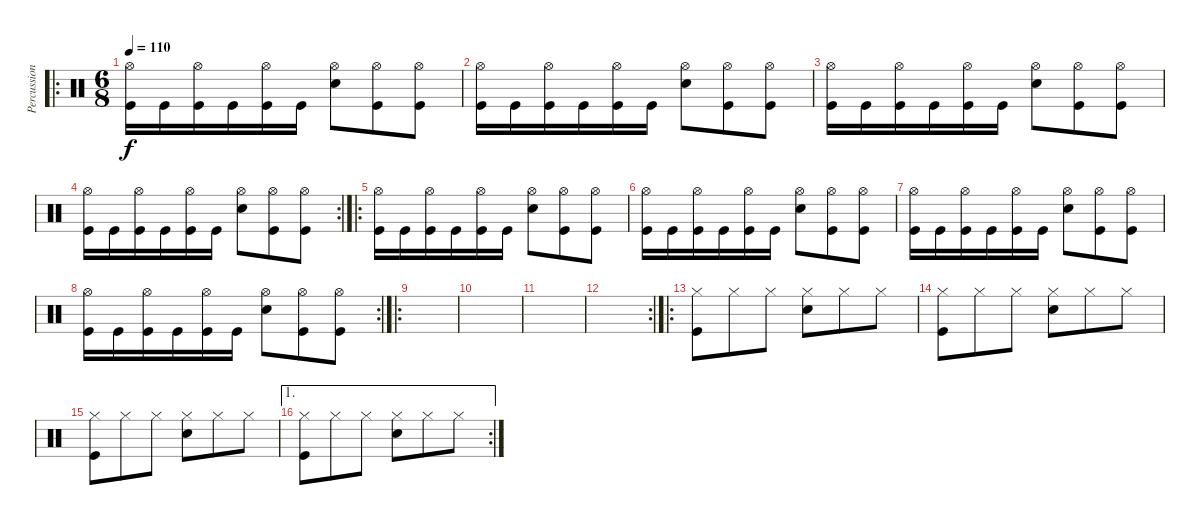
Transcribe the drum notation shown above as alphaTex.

\track ("Percussion" "Percussion") {instrument percussion}
\staff {score}
\articulation defaults
\ro
\ts (6 8)
\tempo 110
\clef neutral
\ks c
("Hi-Hat (open)" "Kick (hit)").16{dy f} "Kick (hit)".16 ("Hi-Hat (open)" "Kick (hit)").16 "Kick (hit)".16 ("Hi-Hat (open)" "Kick (hit)").16 "Kick (hit)".16 ("Hi-Hat (open)" "Snare (hit) 2").8 ("Hi-Hat (open)" "Kick (hit)").8 ("Hi-Hat (open)" "Kick (hit)").8 |
("Hi-Hat (open)" "Kick (hit)").16 "Kick (hit)".16 ("Hi-Hat (open)" "Kick (hit)").16 "Kick (hit)".16 ("Hi-Hat (open)" "Kick (hit)").16 "Kick (hit)".16 ("Hi-Hat (open)" "Snare (hit) 2").8 ("Hi-Hat (open)" "Kick (hit)").8 ("Hi-Hat (open)" "Kick (hit)").8 |
("Hi-Hat (open)" "Kick (hit)").16 "Kick (hit)".16 ("Hi-Hat (open)" "Kick (hit)").16 "Kick (hit)".16 ("Hi-Hat (open)" "Kick (hit)").16 "Kick (hit)".16 ("Hi-Hat (open)" "Snare (hit) 2").8 ("Hi-Hat (open)" "Kick (hit)").8 ("Hi-Hat (open)" "Kick (hit)").8 |
\rc 2
("Hi-Hat (open)" "Kick (hit)").16 "Kick (hit)".16 ("Hi-Hat (open)" "Kick (hit)").16 "Kick (hit)".16 ("Hi-Hat (open)" "Kick (hit)").16 "Kick (hit)".16 ("Hi-Hat (open)" "Snare (hit) 2").8 ("Hi-Hat (open)" "Kick (hit)").8 ("Hi-Hat (open)" "Kick (hit)").8 |
\ro
("Hi-Hat (open)" "Kick (hit)").16 "Kick (hit)".16 ("Hi-Hat (open)" "Kick (hit)").16 "Kick (hit)".16 ("Hi-Hat (open)" "Kick (hit)").16 "Kick (hit)".16 ("Hi-Hat (open)" "Snare (hit) 2").8 ("Hi-Hat (open)" "Kick (hit)").8 ("Hi-Hat (open)" "Kick (hit)").8 |
("Hi-Hat (open)" "Kick (hit)").16 "Kick (hit)".16 ("Hi-Hat (open)" "Kick (hit)").16 "Kick (hit)".16 ("Hi-Hat (open)" "Kick (hit)").16 "Kick (hit)".16 ("Hi-Hat (open)" "Snare (hit) 2").8 ("Hi-Hat (open)" "Kick (hit)").8 ("Hi-Hat (open)" "Kick (hit)").8 |
("Hi-Hat (open)" "Kick (hit)").16 "Kick (hit)".16 ("Hi-Hat (open)" "Kick (hit)").16 "Kick (hit)".16 ("Hi-Hat (open)" "Kick (hit)").16 "Kick (hit)".16 ("Hi-Hat (open)" "Snare (hit) 2").8 ("Hi-Hat (open)" "Kick (hit)").8 ("Hi-Hat (open)" "Kick (hit)").8 |
\rc 2
("Hi-Hat (open)" "Kick (hit)").16 "Kick (hit)".16 ("Hi-Hat (open)" "Kick (hit)").16 "Kick (hit)".16 ("Hi-Hat (open)" "Kick (hit)").16 "Kick (hit)".16 ("Hi-Hat (open)" "Snare (hit) 2").8 ("Hi-Hat (open)" "Kick (hit)").8 ("Hi-Hat (open)" "Kick (hit)").8 |
\ro
|
|
|
\rc 2
|
\ro
("Hi-Hat (closed)" "Kick (hit)").8 "Hi-Hat (closed)".8 "Hi-Hat (closed)".8 ("Hi-Hat (closed)" "Snare (hit) 2").8 "Hi-Hat (closed)".8 "Hi-Hat (closed)".8 |
("Hi-Hat (closed)" "Kick (hit)").8 "Hi-Hat (closed)".8 "Hi-Hat (closed)".8 ("Hi-Hat (closed)" "Snare (hit) 2").8 "Hi-Hat (closed)".8 "Hi-Hat (closed)".8 |
("Hi-Hat (closed)" "Kick (hit)").8 "Hi-Hat (closed)".8 "Hi-Hat (closed)".8 ("Hi-Hat (closed)" "Snare (hit) 2").8 "Hi-Hat (closed)".8 "Hi-Hat (closed)".8 |
\ae 1
\rc 2
("Hi-Hat (closed)" "Kick (hit)").8 "Hi-Hat (closed)".8 "Hi-Hat (closed)".8 ("Hi-Hat (closed)" "Snare (hit) 2").8 "Hi-Hat (closed)".8 "Hi-Hat (closed)".8
